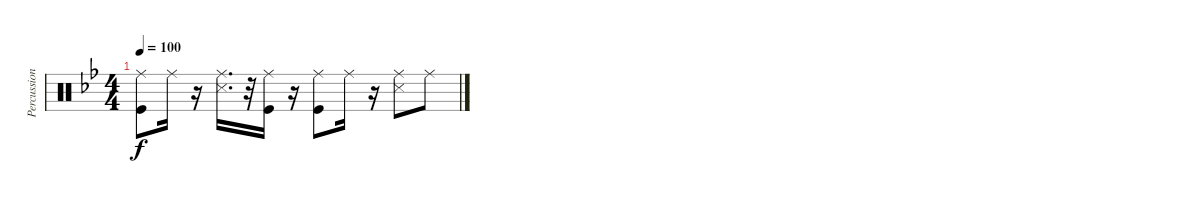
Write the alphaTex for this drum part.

\track ("Percussion" "Percussion") {instrument percussion}
\staff {score}
\articulation defaults
\ts (4 4)
\tempo 100
\clef neutral
\ks bb
("Kick (hit)" "Ride (middle)").8{dy f} "Ride (middle)".16 r.16 ("Snare (side stick) 3" "Ride (middle)").16{d} r.32 ("Ride (middle)" "Kick (hit)").16 r.16 ("Ride (middle)" "Kick (hit)").8 "Ride (middle)".16 r.16 ("Snare (side stick) 3" "Ride (middle)").8 "Ride (middle)".8
